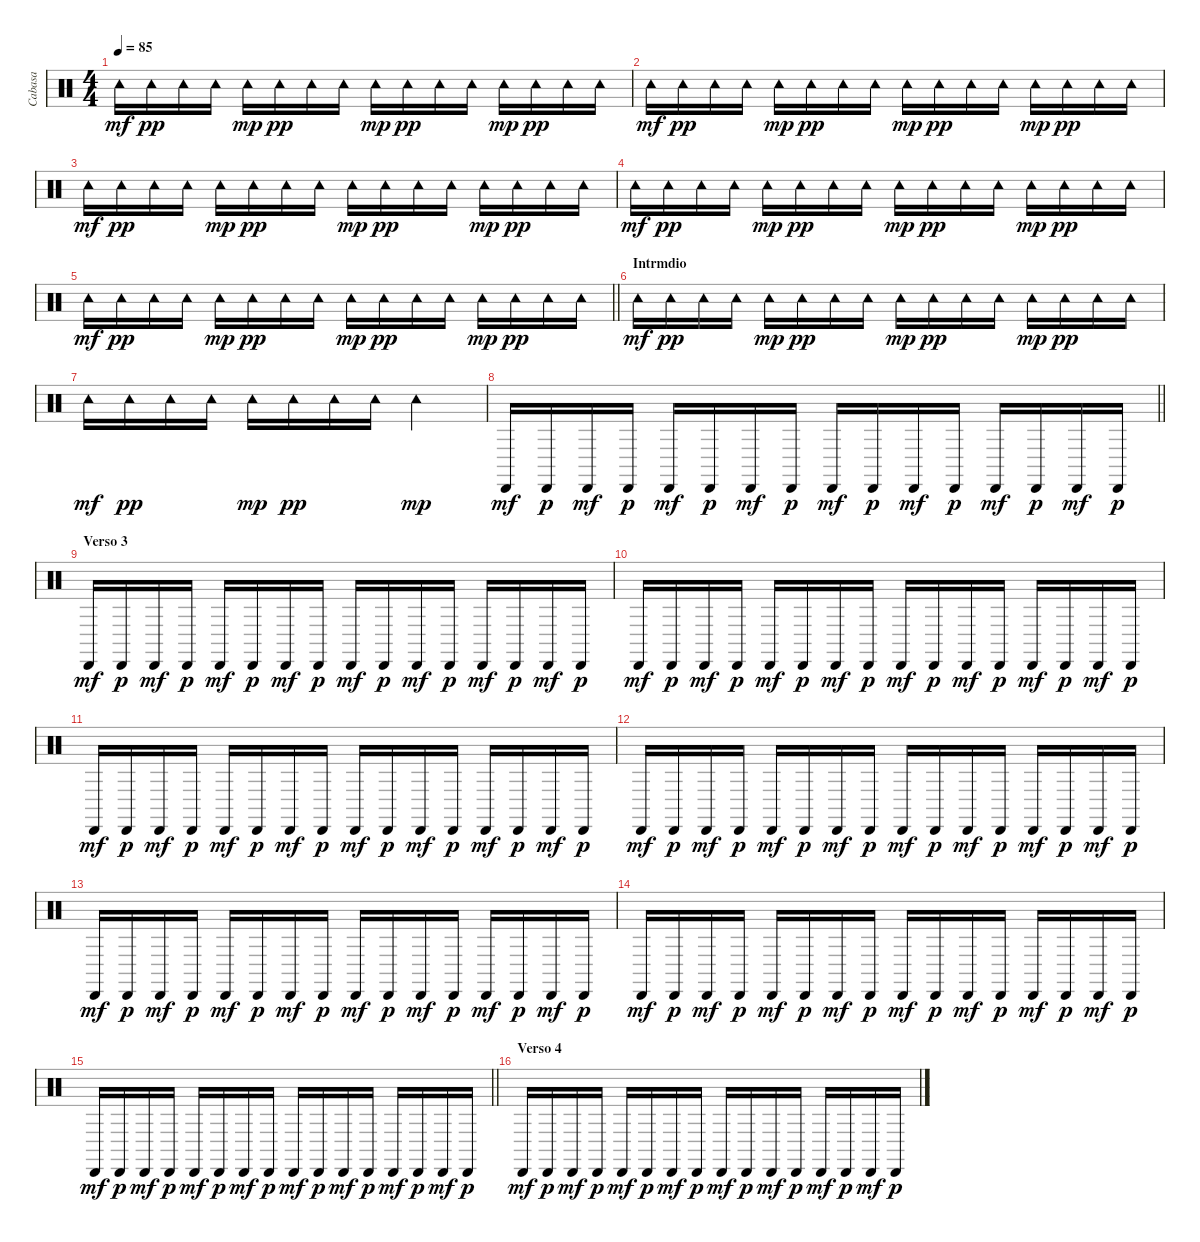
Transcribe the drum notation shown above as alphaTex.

\track ("Cabasa" "Cabasa") {instrument percussion}
\staff {score}
\articulation defaults
\ts (4 4)
\tempo 85
\clef neutral
\ks c "Tambourine (hit)".16{dy mf} "Tambourine (hit)".16{dy pp} "Tambourine (hit)".16 "Tambourine (hit)".16 "Tambourine (hit)".16{dy mp} "Tambourine (hit)".16{dy pp} "Tambourine (hit)".16 "Tambourine (hit)".16 "Tambourine (hit)".16{dy mp} "Tambourine (hit)".16{dy pp} "Tambourine (hit)".16 "Tambourine (hit)".16 "Tambourine (hit)".16{dy mp} "Tambourine (hit)".16{dy pp} "Tambourine (hit)".16 "Tambourine (hit)".16
|
"Tambourine (hit)".16{dy mf} "Tambourine (hit)".16{dy pp} "Tambourine (hit)".16 "Tambourine (hit)".16 "Tambourine (hit)".16{dy mp} "Tambourine (hit)".16{dy pp} "Tambourine (hit)".16 "Tambourine (hit)".16 "Tambourine (hit)".16{dy mp} "Tambourine (hit)".16{dy pp} "Tambourine (hit)".16 "Tambourine (hit)".16 "Tambourine (hit)".16{dy mp} "Tambourine (hit)".16{dy pp} "Tambourine (hit)".16 "Tambourine (hit)".16 |
"Tambourine (hit)".16{dy mf} "Tambourine (hit)".16{dy pp} "Tambourine (hit)".16 "Tambourine (hit)".16 "Tambourine (hit)".16{dy mp} "Tambourine (hit)".16{dy pp} "Tambourine (hit)".16 "Tambourine (hit)".16 "Tambourine (hit)".16{dy mp} "Tambourine (hit)".16{dy pp} "Tambourine (hit)".16 "Tambourine (hit)".16 "Tambourine (hit)".16{dy mp} "Tambourine (hit)".16{dy pp} "Tambourine (hit)".16 "Tambourine (hit)".16 |
"Tambourine (hit)".16{dy mf} "Tambourine (hit)".16{dy pp} "Tambourine (hit)".16 "Tambourine (hit)".16 "Tambourine (hit)".16{dy mp} "Tambourine (hit)".16{dy pp} "Tambourine (hit)".16 "Tambourine (hit)".16 "Tambourine (hit)".16{dy mp} "Tambourine (hit)".16{dy pp} "Tambourine (hit)".16 "Tambourine (hit)".16 "Tambourine (hit)".16{dy mp} "Tambourine (hit)".16{dy pp} "Tambourine (hit)".16 "Tambourine (hit)".16 |
\barLineRight lightlight "Tambourine (hit)".16{dy mf} "Tambourine (hit)".16{dy pp} "Tambourine (hit)".16 "Tambourine (hit)".16 "Tambourine (hit)".16{dy mp} "Tambourine (hit)".16{dy pp} "Tambourine (hit)".16 "Tambourine (hit)".16 "Tambourine (hit)".16{dy mp} "Tambourine (hit)".16{dy pp} "Tambourine (hit)".16 "Tambourine (hit)".16 "Tambourine (hit)".16{dy mp} "Tambourine (hit)".16{dy pp} "Tambourine (hit)".16 "Tambourine (hit)".16
|
\section ("" "Intrmdio")
"Tambourine (hit)".16{dy mf} "Tambourine (hit)".16{dy pp} "Tambourine (hit)".16 "Tambourine (hit)".16 "Tambourine (hit)".16{dy mp} "Tambourine (hit)".16{dy pp} "Tambourine (hit)".16 "Tambourine (hit)".16 "Tambourine (hit)".16{dy mp} "Tambourine (hit)".16{dy pp} "Tambourine (hit)".16 "Tambourine (hit)".16 "Tambourine (hit)".16{dy mp} "Tambourine (hit)".16{dy pp} "Tambourine (hit)".16 "Tambourine (hit)".16 |
"Tambourine (hit)".16{dy mf} "Tambourine (hit)".16{dy pp} "Tambourine (hit)".16 "Tambourine (hit)".16 "Tambourine (hit)".16{dy mp} "Tambourine (hit)".16{dy pp} "Tambourine (hit)".16 "Tambourine (hit)".16 "Tambourine (hit)".2{dy mp} |
\barLineRight lightlight "Cabasa (hit)".16{dy mf} "Cabasa (hit)".16{dy p} "Cabasa (hit)".16{dy mf} "Cabasa (hit)".16{dy p} "Cabasa (hit)".16{dy mf} "Cabasa (hit)".16{dy p} "Cabasa (hit)".16{dy mf} "Cabasa (hit)".16{dy p} "Cabasa (hit)".16{dy mf} "Cabasa (hit)".16{dy p} "Cabasa (hit)".16{dy mf} "Cabasa (hit)".16{dy p} "Cabasa (hit)".16{dy mf} "Cabasa (hit)".16{dy p} "Cabasa (hit)".16{dy mf} "Cabasa (hit)".16{dy p}
|
\section ("" "Verso 3")
"Cabasa (hit)".16{dy mf} "Cabasa (hit)".16{dy p} "Cabasa (hit)".16{dy mf} "Cabasa (hit)".16{dy p} "Cabasa (hit)".16{dy mf} "Cabasa (hit)".16{dy p} "Cabasa (hit)".16{dy mf} "Cabasa (hit)".16{dy p} "Cabasa (hit)".16{dy mf} "Cabasa (hit)".16{dy p} "Cabasa (hit)".16{dy mf} "Cabasa (hit)".16{dy p} "Cabasa (hit)".16{dy mf} "Cabasa (hit)".16{dy p} "Cabasa (hit)".16{dy mf} "Cabasa (hit)".16{dy p} |
"Cabasa (hit)".16{dy mf} "Cabasa (hit)".16{dy p} "Cabasa (hit)".16{dy mf} "Cabasa (hit)".16{dy p} "Cabasa (hit)".16{dy mf} "Cabasa (hit)".16{dy p} "Cabasa (hit)".16{dy mf} "Cabasa (hit)".16{dy p} "Cabasa (hit)".16{dy mf} "Cabasa (hit)".16{dy p} "Cabasa (hit)".16{dy mf} "Cabasa (hit)".16{dy p} "Cabasa (hit)".16{dy mf} "Cabasa (hit)".16{dy p} "Cabasa (hit)".16{dy mf} "Cabasa (hit)".16{dy p} |
"Cabasa (hit)".16{dy mf} "Cabasa (hit)".16{dy p} "Cabasa (hit)".16{dy mf} "Cabasa (hit)".16{dy p} "Cabasa (hit)".16{dy mf} "Cabasa (hit)".16{dy p} "Cabasa (hit)".16{dy mf} "Cabasa (hit)".16{dy p} "Cabasa (hit)".16{dy mf} "Cabasa (hit)".16{dy p} "Cabasa (hit)".16{dy mf} "Cabasa (hit)".16{dy p} "Cabasa (hit)".16{dy mf} "Cabasa (hit)".16{dy p} "Cabasa (hit)".16{dy mf} "Cabasa (hit)".16{dy p} |
"Cabasa (hit)".16{dy mf} "Cabasa (hit)".16{dy p} "Cabasa (hit)".16{dy mf} "Cabasa (hit)".16{dy p} "Cabasa (hit)".16{dy mf} "Cabasa (hit)".16{dy p} "Cabasa (hit)".16{dy mf} "Cabasa (hit)".16{dy p} "Cabasa (hit)".16{dy mf} "Cabasa (hit)".16{dy p} "Cabasa (hit)".16{dy mf} "Cabasa (hit)".16{dy p} "Cabasa (hit)".16{dy mf} "Cabasa (hit)".16{dy p} "Cabasa (hit)".16{dy mf} "Cabasa (hit)".16{dy p} |
"Cabasa (hit)".16{dy mf} "Cabasa (hit)".16{dy p} "Cabasa (hit)".16{dy mf} "Cabasa (hit)".16{dy p} "Cabasa (hit)".16{dy mf} "Cabasa (hit)".16{dy p} "Cabasa (hit)".16{dy mf} "Cabasa (hit)".16{dy p} "Cabasa (hit)".16{dy mf} "Cabasa (hit)".16{dy p} "Cabasa (hit)".16{dy mf} "Cabasa (hit)".16{dy p} "Cabasa (hit)".16{dy mf} "Cabasa (hit)".16{dy p} "Cabasa (hit)".16{dy mf} "Cabasa (hit)".16{dy p} |
"Cabasa (hit)".16{dy mf} "Cabasa (hit)".16{dy p} "Cabasa (hit)".16{dy mf} "Cabasa (hit)".16{dy p} "Cabasa (hit)".16{dy mf} "Cabasa (hit)".16{dy p} "Cabasa (hit)".16{dy mf} "Cabasa (hit)".16{dy p} "Cabasa (hit)".16{dy mf} "Cabasa (hit)".16{dy p} "Cabasa (hit)".16{dy mf} "Cabasa (hit)".16{dy p} "Cabasa (hit)".16{dy mf} "Cabasa (hit)".16{dy p} "Cabasa (hit)".16{dy mf} "Cabasa (hit)".16{dy p} |
\barLineRight lightlight "Cabasa (hit)".16{dy mf} "Cabasa (hit)".16{dy p} "Cabasa (hit)".16{dy mf} "Cabasa (hit)".16{dy p} "Cabasa (hit)".16{dy mf} "Cabasa (hit)".16{dy p} "Cabasa (hit)".16{dy mf} "Cabasa (hit)".16{dy p} "Cabasa (hit)".16{dy mf} "Cabasa (hit)".16{dy p} "Cabasa (hit)".16{dy mf} "Cabasa (hit)".16{dy p} "Cabasa (hit)".16{dy mf} "Cabasa (hit)".16{dy p} "Cabasa (hit)".16{dy mf} "Cabasa (hit)".16{dy p}
|
\section ("" "Verso 4")
"Cabasa (hit)".16{dy mf} "Cabasa (hit)".16{dy p} "Cabasa (hit)".16{dy mf} "Cabasa (hit)".16{dy p} "Cabasa (hit)".16{dy mf} "Cabasa (hit)".16{dy p} "Cabasa (hit)".16{dy mf} "Cabasa (hit)".16{dy p} "Cabasa (hit)".16{dy mf} "Cabasa (hit)".16{dy p} "Cabasa (hit)".16{dy mf} "Cabasa (hit)".16{dy p} "Cabasa (hit)".16{dy mf} "Cabasa (hit)".16{dy p} "Cabasa (hit)".16{dy mf} "Cabasa (hit)".16{dy p}
